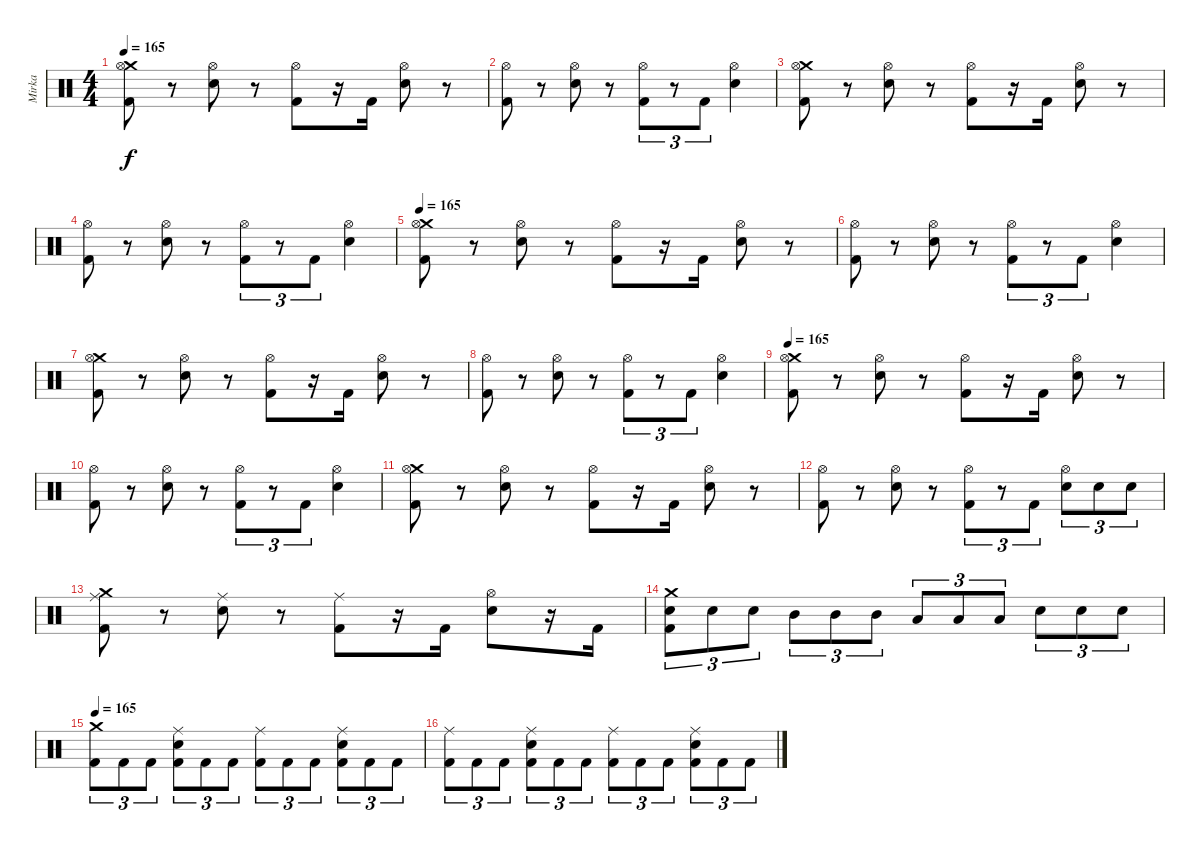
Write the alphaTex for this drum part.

\track ("Mirka" "Mirka") {instrument percussion}
\staff {score}
\articulation defaults
\ts (4 4)
\tempo 165
\clef neutral
\ks c
("Crash medium (hit)" "Hi-Hat (open)" "Kick (hit) 2").8{dy f} r.8 ("Hi-Hat (open)" "Electric Snare (hit)").8 r.8 ("Hi-Hat (open)" "Kick (hit) 2").8 r.16 "Kick (hit) 2".16 ("Electric Snare (hit)" "Hi-Hat (open)").8 r.8 |
("Hi-Hat (open)" "Kick (hit) 2").8 r.8 ("Hi-Hat (open)" "Electric Snare (hit)").8 r.8 ("Hi-Hat (open)" "Kick (hit) 2").8{tu (3 2)} r.8{tu (3 2)} "Kick (hit) 2".8{tu (3 2)} ("Hi-Hat (open)" "Electric Snare (hit)").4 |
("Crash medium (hit)" "Hi-Hat (open)" "Kick (hit) 2").8 r.8 ("Hi-Hat (open)" "Electric Snare (hit)").8 r.8 ("Hi-Hat (open)" "Kick (hit) 2").8 r.16 "Kick (hit) 2".16 ("Electric Snare (hit)" "Hi-Hat (open)").8 r.8 |
("Hi-Hat (open)" "Kick (hit) 2").8 r.8 ("Hi-Hat (open)" "Electric Snare (hit)").8 r.8 ("Hi-Hat (open)" "Kick (hit) 2").8{tu (3 2)} r.8{tu (3 2)} "Kick (hit) 2".8{tu (3 2)} ("Hi-Hat (open)" "Electric Snare (hit)").4 |
\tempo 165
("Crash medium (hit)" "Hi-Hat (open)" "Kick (hit) 2").8 r.8 ("Hi-Hat (open)" "Electric Snare (hit)").8 r.8 ("Hi-Hat (open)" "Kick (hit) 2").8 r.16 "Kick (hit) 2".16 ("Electric Snare (hit)" "Hi-Hat (open)").8 r.8 |
("Hi-Hat (open)" "Kick (hit) 2").8 r.8 ("Hi-Hat (open)" "Electric Snare (hit)").8 r.8 ("Hi-Hat (open)" "Kick (hit) 2").8{tu (3 2)} r.8{tu (3 2)} "Kick (hit) 2".8{tu (3 2)} ("Hi-Hat (open)" "Electric Snare (hit)").4 |
("Crash medium (hit)" "Hi-Hat (open)" "Kick (hit) 2").8 r.8 ("Hi-Hat (open)" "Electric Snare (hit)").8 r.8 ("Hi-Hat (open)" "Kick (hit) 2").8 r.16 "Kick (hit) 2".16 ("Electric Snare (hit)" "Hi-Hat (open)").8 r.8 |
("Hi-Hat (open)" "Kick (hit) 2").8 r.8 ("Hi-Hat (open)" "Electric Snare (hit)").8 r.8 ("Hi-Hat (open)" "Kick (hit) 2").8{tu (3 2)} r.8{tu (3 2)} "Kick (hit) 2".8{tu (3 2)} ("Hi-Hat (open)" "Electric Snare (hit)").4 |
\tempo 165
("Crash medium (hit)" "Hi-Hat (open)" "Kick (hit) 2").8 r.8 ("Hi-Hat (open)" "Electric Snare (hit)").8 r.8 ("Hi-Hat (open)" "Kick (hit) 2").8 r.16 "Kick (hit) 2".16 ("Electric Snare (hit)" "Hi-Hat (open)").8 r.8 |
("Hi-Hat (open)" "Kick (hit) 2").8 r.8 ("Hi-Hat (open)" "Electric Snare (hit)").8 r.8 ("Hi-Hat (open)" "Kick (hit) 2").8{tu (3 2)} r.8{tu (3 2)} "Kick (hit) 2".8{tu (3 2)} ("Hi-Hat (open)" "Electric Snare (hit)").4 |
("Crash medium (hit)" "Hi-Hat (open)" "Kick (hit) 2").8 r.8 ("Hi-Hat (open)" "Electric Snare (hit)").8 r.8 ("Hi-Hat (open)" "Kick (hit) 2").8 r.16 "Kick (hit) 2".16 ("Electric Snare (hit)" "Hi-Hat (open)").8 r.8 |
("Hi-Hat (open)" "Kick (hit) 2").8 r.8 ("Hi-Hat (open)" "Electric Snare (hit)").8 r.8 ("Hi-Hat (open)" "Kick (hit) 2").8{tu (3 2)} r.8{tu (3 2)} "Kick (hit) 2".8{tu (3 2)} ("Hi-Hat (open)" "Electric Snare (hit)").8{tu (3 2)} "Electric Snare (hit)".8{tu (3 2)} "Electric Snare (hit)".8{tu (3 2)} |
("Crash medium (hit)" "Ride (middle)" "Kick (hit) 2").8 r.8 ("Ride (middle)" "Electric Snare (hit)").8 r.8 ("Ride (middle)" "Kick (hit) 2").8 r.16 "Kick (hit) 2".16 ("Electric Snare (hit)" "Hi-Hat (open)").8 r.16 "Kick (hit) 2".16 |
("Crash medium (hit)" "Electric Snare (hit)" "Kick (hit) 2").8{tu (3 2)} "Electric Snare (hit)".8{tu (3 2)} "Electric Snare (hit)".8{tu (3 2)} "Mid Tom (hit)".8{tu (3 2)} "Mid Tom (hit)".8{tu (3 2)} "Mid Tom (hit)".8{tu (3 2)} "Low Tom (hit)".8{tu (3 2)} "Low Tom (hit)".8{tu (3 2)} "Low Tom (hit)".8{tu (3 2)} "Electric Snare (hit)".8{tu (3 2)} "Electric Snare (hit)".8{tu (3 2)} "Electric Snare (hit)".8{tu (3 2)} |
\tempo 165
("Crash medium (hit)" "Kick (hit) 2").8{tu (3 2)} "Kick (hit) 2".8{tu (3 2)} "Kick (hit) 2".8{tu (3 2)} ("Ride (middle)" "Electric Snare (hit)" "Kick (hit) 2").8{tu (3 2)} "Kick (hit) 2".8{tu (3 2)} "Kick (hit) 2".8{tu (3 2)} ("Ride (middle)" "Kick (hit) 2").8{tu (3 2)} "Kick (hit) 2".8{tu (3 2)} "Kick (hit) 2".8{tu (3 2)} ("Ride (middle)" "Electric Snare (hit)" "Kick (hit) 2").8{tu (3 2)} "Kick (hit) 2".8{tu (3 2)} "Kick (hit) 2".8{tu (3 2)} |
("Ride (middle)" "Kick (hit) 2").8{tu (3 2)} "Kick (hit) 2".8{tu (3 2)} "Kick (hit) 2".8{tu (3 2)} ("Ride (middle)" "Electric Snare (hit)" "Kick (hit) 2").8{tu (3 2)} "Kick (hit) 2".8{tu (3 2)} "Kick (hit) 2".8{tu (3 2)} ("Ride (middle)" "Kick (hit) 2").8{tu (3 2)} "Kick (hit) 2".8{tu (3 2)} "Kick (hit) 2".8{tu (3 2)} ("Ride (middle)" "Electric Snare (hit)" "Kick (hit) 2").8{tu (3 2)} "Kick (hit) 2".8{tu (3 2)} "Kick (hit) 2".8{tu (3 2)}
